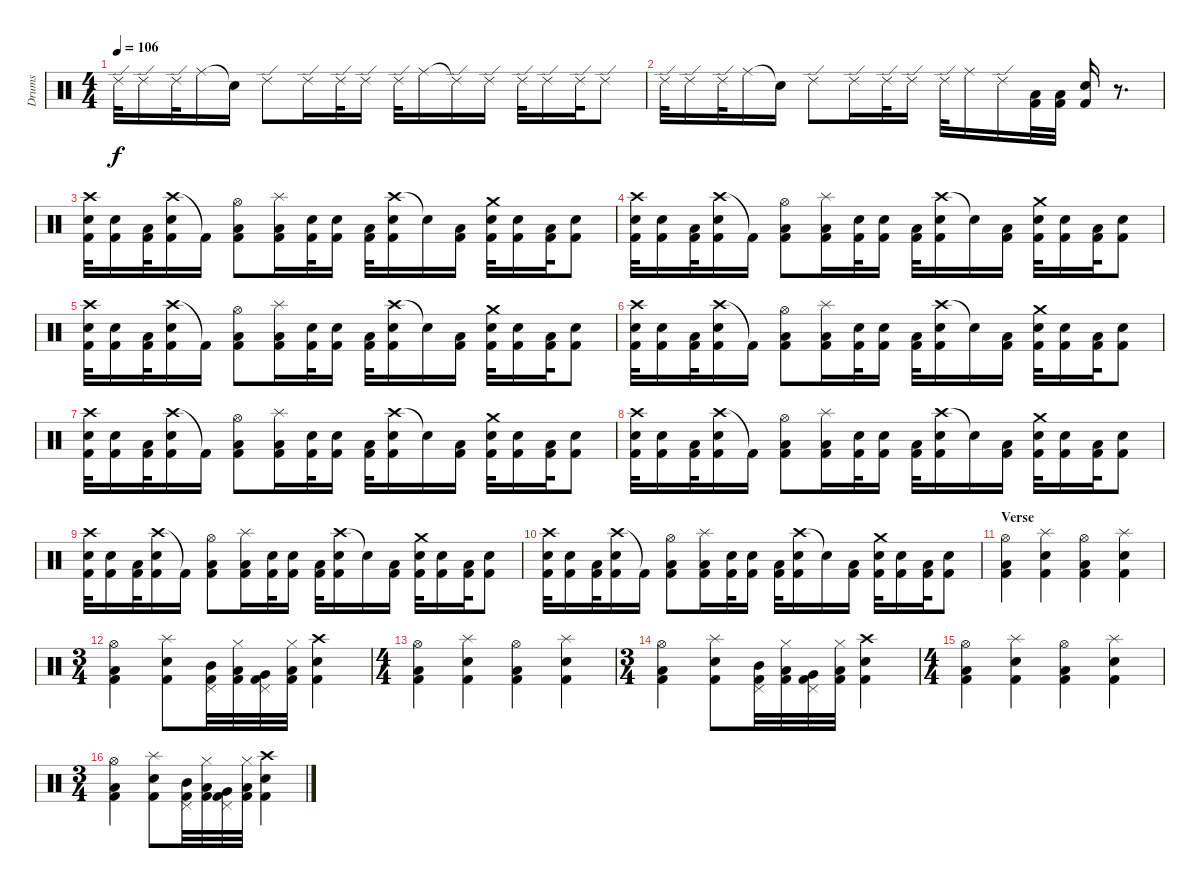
\track ("Drums" "Drums") {instrument percussion}
\staff {score}
\articulation defaults
\ts (4 4)
\tempo 106
\clef neutral
\ks c "Ride (edge) 2".32{dy f} "Ride (edge) 2".16 "Ride (edge) 2".32 "Ride (middle)".16 "Snare (hit)"{t}.16 "Ride (edge) 2".8 "Ride (edge) 2".16 "Ride (edge) 2".32 "Ride (edge) 2".16 "Ride (edge) 2".32 "Ride (middle)".16 "Ride (edge) 2"{t}.16 "Ride (edge) 2".16 "Ride (edge) 2".32 "Ride (edge) 2".16 "Ride (edge) 2".32 "Ride (edge) 2".8
|
"Ride (edge) 2".32 "Ride (edge) 2".16 "Ride (edge) 2".32 "Ride (middle)".16 "Snare (hit)"{t}.16 "Ride (edge) 2".8 "Ride (edge) 2".16 "Ride (edge) 2".32 "Ride (edge) 2".16 "Ride (edge) 2".32 "Ride (middle)".16 "Ride (edge) 2".16 ("Low Tom (hit)" "Kick (hit) 2").32 ("Low Tom (hit)" "Kick (hit) 2").32 ("Electric Snare (hit)" "Kick (hit) 2").16 r.8{d} |
("Crash high (hit)" "Electric Snare (hit)" "Kick (hit) 2").32{volume 10} ("Electric Snare (hit)" "Kick (hit) 2").16 ("Low Tom (hit)" "Kick (hit) 2").32 ("Crash high (hit)" "Electric Snare (hit)" "Kick (hit) 2").16 "Kick (hit) 2"{t}.16 ("Hi-Hat (open)" "Low Tom (hit)" "Kick (hit) 2").8 ("Splash (hit)" "Low Tom (hit)" "Kick (hit) 2").16 ("Electric Snare (hit)" "Kick (hit) 2").32 ("Electric Snare (hit)" "Kick (hit) 2").16 ("Low Tom (hit)" "Kick (hit) 2").32 ("Crash high (hit)" "Electric Snare (hit)" "Kick (hit) 2").16 "Snare (hit)"{t}.16 ("Low Tom (hit)" "Kick (hit) 2").16 ("Crash medium (hit)" "Electric Snare (hit)" "Kick (hit) 2").32 ("Electric Snare (hit)" "Kick (hit) 2").16 ("Low Tom (hit)" "Kick (hit) 2").32 ("Electric Snare (hit)" "Kick (hit) 2").8 |
("Crash high (hit)" "Electric Snare (hit)" "Kick (hit) 2").32 ("Electric Snare (hit)" "Kick (hit) 2").16 ("Low Tom (hit)" "Kick (hit) 2").32 ("Crash high (hit)" "Electric Snare (hit)" "Kick (hit) 2").16 "Kick (hit) 2"{t}.16 ("Hi-Hat (open)" "Low Tom (hit)" "Kick (hit) 2").8 ("Splash (hit)" "Low Tom (hit)" "Kick (hit) 2").16 ("Electric Snare (hit)" "Kick (hit) 2").32 ("Electric Snare (hit)" "Kick (hit) 2").16 ("Low Tom (hit)" "Kick (hit) 2").32 ("Crash high (hit)" "Electric Snare (hit)" "Kick (hit) 2").16 "Snare (hit)"{t}.16 ("Low Tom (hit)" "Kick (hit) 2").16 ("Crash medium (hit)" "Electric Snare (hit)" "Kick (hit) 2").32 ("Electric Snare (hit)" "Kick (hit) 2").16 ("Low Tom (hit)" "Kick (hit) 2").32 ("Electric Snare (hit)" "Kick (hit) 2").8 |
("Crash high (hit)" "Electric Snare (hit)" "Kick (hit) 2").32 ("Electric Snare (hit)" "Kick (hit) 2").16 ("Low Tom (hit)" "Kick (hit) 2").32 ("Crash high (hit)" "Electric Snare (hit)" "Kick (hit) 2").16 "Kick (hit) 2"{t}.16 ("Hi-Hat (open)" "Low Tom (hit)" "Kick (hit) 2").8 ("Splash (hit)" "Low Tom (hit)" "Kick (hit) 2").16 ("Electric Snare (hit)" "Kick (hit) 2").32 ("Electric Snare (hit)" "Kick (hit) 2").16 ("Low Tom (hit)" "Kick (hit) 2").32 ("Crash high (hit)" "Electric Snare (hit)" "Kick (hit) 2").16 "Snare (hit)"{t}.16 ("Low Tom (hit)" "Kick (hit) 2").16 ("Crash medium (hit)" "Electric Snare (hit)" "Kick (hit) 2").32 ("Electric Snare (hit)" "Kick (hit) 2").16 ("Low Tom (hit)" "Kick (hit) 2").32 ("Electric Snare (hit)" "Kick (hit) 2").8 |
("Crash high (hit)" "Electric Snare (hit)" "Kick (hit) 2").32 ("Electric Snare (hit)" "Kick (hit) 2").16 ("Low Tom (hit)" "Kick (hit) 2").32 ("Crash high (hit)" "Electric Snare (hit)" "Kick (hit) 2").16 "Kick (hit) 2"{t}.16 ("Hi-Hat (open)" "Low Tom (hit)" "Kick (hit) 2").8 ("Splash (hit)" "Low Tom (hit)" "Kick (hit) 2").16 ("Electric Snare (hit)" "Kick (hit) 2").32 ("Electric Snare (hit)" "Kick (hit) 2").16 ("Low Tom (hit)" "Kick (hit) 2").32 ("Crash high (hit)" "Electric Snare (hit)" "Kick (hit) 2").16 "Snare (hit)"{t}.16 ("Low Tom (hit)" "Kick (hit) 2").16 ("Crash medium (hit)" "Electric Snare (hit)" "Kick (hit) 2").32 ("Electric Snare (hit)" "Kick (hit) 2").16 ("Low Tom (hit)" "Kick (hit) 2").32 ("Electric Snare (hit)" "Kick (hit) 2").8 |
("Crash high (hit)" "Electric Snare (hit)" "Kick (hit) 2").32 ("Electric Snare (hit)" "Kick (hit) 2").16 ("Low Tom (hit)" "Kick (hit) 2").32 ("Crash high (hit)" "Electric Snare (hit)" "Kick (hit) 2").16 "Kick (hit) 2"{t}.16 ("Hi-Hat (open)" "Low Tom (hit)" "Kick (hit) 2").8 ("Splash (hit)" "Low Tom (hit)" "Kick (hit) 2").16 ("Electric Snare (hit)" "Kick (hit) 2").32 ("Electric Snare (hit)" "Kick (hit) 2").16 ("Low Tom (hit)" "Kick (hit) 2").32 ("Crash high (hit)" "Electric Snare (hit)" "Kick (hit) 2").16 "Snare (hit)"{t}.16 ("Low Tom (hit)" "Kick (hit) 2").16 ("Crash medium (hit)" "Electric Snare (hit)" "Kick (hit) 2").32 ("Electric Snare (hit)" "Kick (hit) 2").16 ("Low Tom (hit)" "Kick (hit) 2").32 ("Electric Snare (hit)" "Kick (hit) 2").8 |
("Crash high (hit)" "Electric Snare (hit)" "Kick (hit) 2").32 ("Electric Snare (hit)" "Kick (hit) 2").16 ("Low Tom (hit)" "Kick (hit) 2").32 ("Crash high (hit)" "Electric Snare (hit)" "Kick (hit) 2").16 "Kick (hit) 2"{t}.16 ("Hi-Hat (open)" "Low Tom (hit)" "Kick (hit) 2").8 ("Splash (hit)" "Low Tom (hit)" "Kick (hit) 2").16 ("Electric Snare (hit)" "Kick (hit) 2").32 ("Electric Snare (hit)" "Kick (hit) 2").16 ("Low Tom (hit)" "Kick (hit) 2").32 ("Crash high (hit)" "Electric Snare (hit)" "Kick (hit) 2").16 "Snare (hit)"{t}.16 ("Low Tom (hit)" "Kick (hit) 2").16 ("Crash medium (hit)" "Electric Snare (hit)" "Kick (hit) 2").32 ("Electric Snare (hit)" "Kick (hit) 2").16 ("Low Tom (hit)" "Kick (hit) 2").32 ("Electric Snare (hit)" "Kick (hit) 2").8 |
("Crash high (hit)" "Electric Snare (hit)" "Kick (hit) 2").32 ("Electric Snare (hit)" "Kick (hit) 2").16 ("Low Tom (hit)" "Kick (hit) 2").32 ("Crash high (hit)" "Electric Snare (hit)" "Kick (hit) 2").16 "Kick (hit) 2"{t}.16 ("Hi-Hat (open)" "Low Tom (hit)" "Kick (hit) 2").8 ("Splash (hit)" "Low Tom (hit)" "Kick (hit) 2").16 ("Electric Snare (hit)" "Kick (hit) 2").32 ("Electric Snare (hit)" "Kick (hit) 2").16 ("Low Tom (hit)" "Kick (hit) 2").32 ("Crash high (hit)" "Electric Snare (hit)" "Kick (hit) 2").16 "Snare (hit)"{t}.16 ("Low Tom (hit)" "Kick (hit) 2").16 ("Crash medium (hit)" "Electric Snare (hit)" "Kick (hit) 2").32 ("Electric Snare (hit)" "Kick (hit) 2").16 ("Low Tom (hit)" "Kick (hit) 2").32 ("Electric Snare (hit)" "Kick (hit) 2").8 |
("Crash high (hit)" "Electric Snare (hit)" "Kick (hit) 2").32 ("Electric Snare (hit)" "Kick (hit) 2").16 ("Low Tom (hit)" "Kick (hit) 2").32 ("Crash high (hit)" "Electric Snare (hit)" "Kick (hit) 2").16 "Kick (hit) 2"{t}.16 ("Hi-Hat (open)" "Low Tom (hit)" "Kick (hit) 2").8 ("Splash (hit)" "Low Tom (hit)" "Kick (hit) 2").16 ("Electric Snare (hit)" "Kick (hit) 2").32 ("Electric Snare (hit)" "Kick (hit) 2").16 ("Low Tom (hit)" "Kick (hit) 2").32 ("Crash high (hit)" "Electric Snare (hit)" "Kick (hit) 2").16 "Snare (hit)"{t}.16 ("Low Tom (hit)" "Kick (hit) 2").16 ("Crash medium (hit)" "Electric Snare (hit)" "Kick (hit) 2").32 ("Electric Snare (hit)" "Kick (hit) 2").16 ("Low Tom (hit)" "Kick (hit) 2").32 ("Electric Snare (hit)" "Kick (hit) 2").8 |
\section ("" "Verse")
("Hi-Hat (open)" "Low Tom (hit)" "Kick (hit) 2").4{volume 11} ("Splash (hit)" "Electric Snare (hit)" "Kick (hit) 2").4 ("Hi-Hat (open)" "Low Tom (hit)" "Kick (hit) 2").4 ("Splash (hit)" "Electric Snare (hit)" "Kick (hit) 2").4 |
\ts (3 4)
("Hi-Hat (open)" "Low Tom (hit)" "Kick (hit) 2").4 ("Splash (hit)" "Electric Snare (hit)" "Kick (hit) 2").8 ("Mid Tom (hit)" "Pedal Hi-Hat (hit)" "Kick (hit) 2").32 ("Low Tom (hit)" "Hi-Hat (closed)" "Kick (hit) 2").32 ("Very Low Tom (hit)" "Pedal Hi-Hat (hit)" "Kick (hit) 2").32 ("Low Floor Tom (hit)" "Hi-Hat (closed)" "Kick (hit) 2").32 ("Crash high (hit)" "Electric Snare (hit)" "Kick (hit) 2").4 |
\ts (4 4)
("Hi-Hat (open)" "Low Tom (hit)" "Kick (hit) 2").4 ("Splash (hit)" "Electric Snare (hit)" "Kick (hit) 2").4 ("Hi-Hat (open)" "Low Tom (hit)" "Kick (hit) 2").4 ("Splash (hit)" "Electric Snare (hit)" "Kick (hit) 2").4 |
\ts (3 4)
("Hi-Hat (open)" "Low Tom (hit)" "Kick (hit) 2").4 ("Splash (hit)" "Electric Snare (hit)" "Kick (hit) 2").8 ("Mid Tom (hit)" "Pedal Hi-Hat (hit)" "Kick (hit) 2").32 ("Low Tom (hit)" "Hi-Hat (closed)" "Kick (hit) 2").32 ("Very Low Tom (hit)" "Pedal Hi-Hat (hit)" "Kick (hit) 2").32 ("Low Floor Tom (hit)" "Hi-Hat (closed)" "Kick (hit) 2").32 ("Crash high (hit)" "Electric Snare (hit)" "Kick (hit) 2").4 |
\ts (4 4)
("Hi-Hat (open)" "Low Tom (hit)" "Kick (hit) 2").4 ("Splash (hit)" "Electric Snare (hit)" "Kick (hit) 2").4 ("Hi-Hat (open)" "Low Tom (hit)" "Kick (hit) 2").4 ("Splash (hit)" "Electric Snare (hit)" "Kick (hit) 2").4 |
\ts (3 4)
("Hi-Hat (open)" "Low Tom (hit)" "Kick (hit) 2").4 ("Splash (hit)" "Electric Snare (hit)" "Kick (hit) 2").8 ("Mid Tom (hit)" "Pedal Hi-Hat (hit)" "Kick (hit) 2").32 ("Low Tom (hit)" "Hi-Hat (closed)" "Kick (hit) 2").32 ("Very Low Tom (hit)" "Pedal Hi-Hat (hit)" "Kick (hit) 2").32 ("Low Floor Tom (hit)" "Hi-Hat (closed)" "Kick (hit) 2").32 ("Crash high (hit)" "Electric Snare (hit)" "Kick (hit) 2").4
